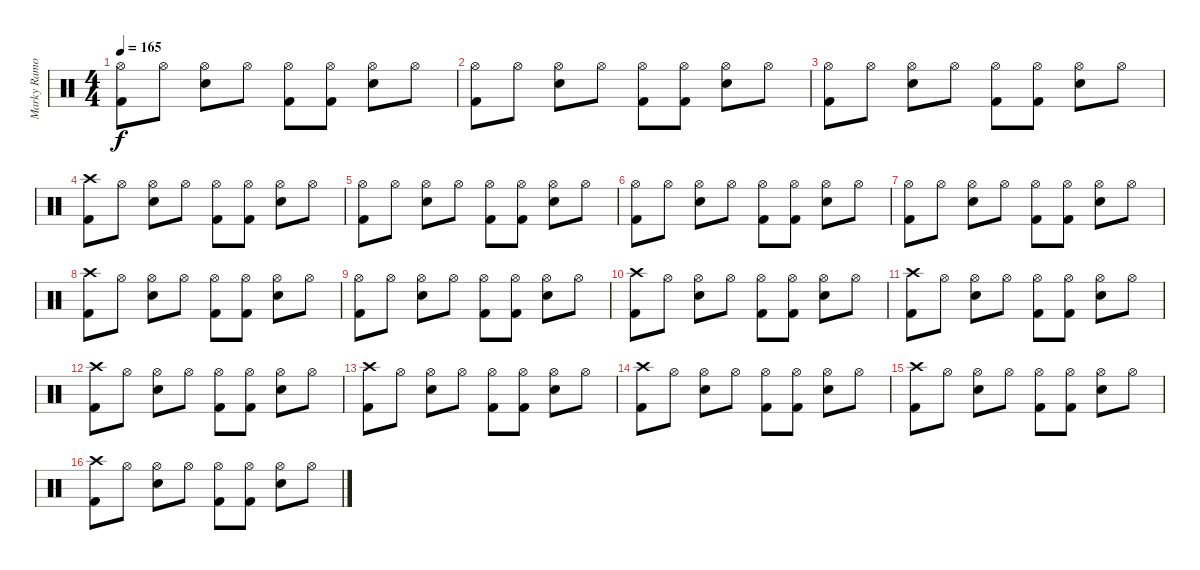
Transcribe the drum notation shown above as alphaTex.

\track ("Marky Ramone" "Marky Ramo") {instrument percussion}
\staff {score}
\articulation defaults
\ts (4 4)
\tempo 165
\clef neutral
\ks c
("Hi-Hat (open)" "Kick (hit) 2").8{dy f} "Hi-Hat (open)".8 ("Hi-Hat (open)" "Snare (hit) 2").8 "Hi-Hat (open)".8 ("Hi-Hat (open)" "Kick (hit) 2").8 ("Hi-Hat (open)" "Kick (hit) 2").8 ("Hi-Hat (open)" "Snare (hit) 2").8 "Hi-Hat (open)".8 |
("Hi-Hat (open)" "Kick (hit) 2").8 "Hi-Hat (open)".8 ("Hi-Hat (open)" "Snare (hit) 2").8 "Hi-Hat (open)".8 ("Hi-Hat (open)" "Kick (hit) 2").8 ("Hi-Hat (open)" "Kick (hit) 2").8 ("Hi-Hat (open)" "Snare (hit) 2").8 "Hi-Hat (open)".8 |
("Hi-Hat (open)" "Kick (hit) 2").8 "Hi-Hat (open)".8 ("Hi-Hat (open)" "Snare (hit) 2").8 "Hi-Hat (open)".8 ("Hi-Hat (open)" "Kick (hit) 2").8 ("Hi-Hat (open)" "Kick (hit) 2").8 ("Hi-Hat (open)" "Snare (hit) 2").8 "Hi-Hat (open)".8 |
("Crash high (hit)" "Kick (hit) 2").8 "Hi-Hat (open)".8 ("Hi-Hat (open)" "Snare (hit) 2").8 "Hi-Hat (open)".8 ("Hi-Hat (open)" "Kick (hit) 2").8 ("Hi-Hat (open)" "Kick (hit) 2").8 ("Hi-Hat (open)" "Snare (hit) 2").8 "Hi-Hat (open)".8 |
("Hi-Hat (open)" "Kick (hit) 2").8 "Hi-Hat (open)".8 ("Hi-Hat (open)" "Snare (hit) 2").8 "Hi-Hat (open)".8 ("Hi-Hat (open)" "Kick (hit) 2").8 ("Hi-Hat (open)" "Kick (hit) 2").8 ("Hi-Hat (open)" "Snare (hit) 2").8 "Hi-Hat (open)".8 |
("Hi-Hat (open)" "Kick (hit) 2").8 "Hi-Hat (open)".8 ("Hi-Hat (open)" "Snare (hit) 2").8 "Hi-Hat (open)".8 ("Hi-Hat (open)" "Kick (hit) 2").8 ("Hi-Hat (open)" "Kick (hit) 2").8 ("Hi-Hat (open)" "Snare (hit) 2").8 "Hi-Hat (open)".8 |
("Hi-Hat (open)" "Kick (hit) 2").8 "Hi-Hat (open)".8 ("Hi-Hat (open)" "Snare (hit) 2").8 "Hi-Hat (open)".8 ("Hi-Hat (open)" "Kick (hit) 2").8 ("Hi-Hat (open)" "Kick (hit) 2").8 ("Hi-Hat (open)" "Snare (hit) 2").8 "Hi-Hat (open)".8 |
("Crash high (hit)" "Kick (hit) 2").8 "Hi-Hat (open)".8 ("Hi-Hat (open)" "Snare (hit) 2").8 "Hi-Hat (open)".8 ("Hi-Hat (open)" "Kick (hit) 2").8 ("Hi-Hat (open)" "Kick (hit) 2").8 ("Hi-Hat (open)" "Snare (hit) 2").8 "Hi-Hat (open)".8 |
("Hi-Hat (open)" "Kick (hit) 2").8 "Hi-Hat (open)".8 ("Hi-Hat (open)" "Snare (hit) 2").8 "Hi-Hat (open)".8 ("Hi-Hat (open)" "Kick (hit) 2").8 ("Hi-Hat (open)" "Kick (hit) 2").8 ("Hi-Hat (open)" "Snare (hit) 2").8 "Hi-Hat (open)".8 |
("Crash high (hit)" "Kick (hit) 2").8 "Hi-Hat (open)".8 ("Hi-Hat (open)" "Snare (hit) 2").8 "Hi-Hat (open)".8 ("Hi-Hat (open)" "Kick (hit) 2").8 ("Hi-Hat (open)" "Kick (hit) 2").8 ("Hi-Hat (open)" "Snare (hit) 2").8 "Hi-Hat (open)".8 |
("Crash high (hit)" "Kick (hit) 2").8 "Hi-Hat (open)".8 ("Hi-Hat (open)" "Snare (hit) 2").8 "Hi-Hat (open)".8 ("Hi-Hat (open)" "Kick (hit) 2").8 ("Hi-Hat (open)" "Kick (hit) 2").8 ("Hi-Hat (open)" "Snare (hit) 2").8 "Hi-Hat (open)".8 |
("Crash high (hit)" "Kick (hit) 2").8 "Hi-Hat (open)".8 ("Hi-Hat (open)" "Snare (hit) 2").8 "Hi-Hat (open)".8 ("Hi-Hat (open)" "Kick (hit) 2").8 ("Hi-Hat (open)" "Kick (hit) 2").8 ("Hi-Hat (open)" "Snare (hit) 2").8 "Hi-Hat (open)".8 |
("Crash high (hit)" "Kick (hit) 2").8 "Hi-Hat (open)".8 ("Hi-Hat (open)" "Snare (hit) 2").8 "Hi-Hat (open)".8 ("Hi-Hat (open)" "Kick (hit) 2").8 ("Hi-Hat (open)" "Kick (hit) 2").8 ("Hi-Hat (open)" "Snare (hit) 2").8 "Hi-Hat (open)".8 |
("Crash high (hit)" "Kick (hit) 2").8 "Hi-Hat (open)".8 ("Hi-Hat (open)" "Snare (hit) 2").8 "Hi-Hat (open)".8 ("Hi-Hat (open)" "Kick (hit) 2").8 ("Hi-Hat (open)" "Kick (hit) 2").8 ("Hi-Hat (open)" "Snare (hit) 2").8 "Hi-Hat (open)".8 |
("Crash high (hit)" "Kick (hit) 2").8 "Hi-Hat (open)".8 ("Hi-Hat (open)" "Snare (hit) 2").8 "Hi-Hat (open)".8 ("Hi-Hat (open)" "Kick (hit) 2").8 ("Hi-Hat (open)" "Kick (hit) 2").8 ("Hi-Hat (open)" "Snare (hit) 2").8 "Hi-Hat (open)".8 |
("Crash high (hit)" "Kick (hit) 2").8 "Hi-Hat (open)".8 ("Hi-Hat (open)" "Snare (hit) 2").8 "Hi-Hat (open)".8 ("Hi-Hat (open)" "Kick (hit) 2").8 ("Hi-Hat (open)" "Kick (hit) 2").8 ("Hi-Hat (open)" "Snare (hit) 2").8 "Hi-Hat (open)".8
